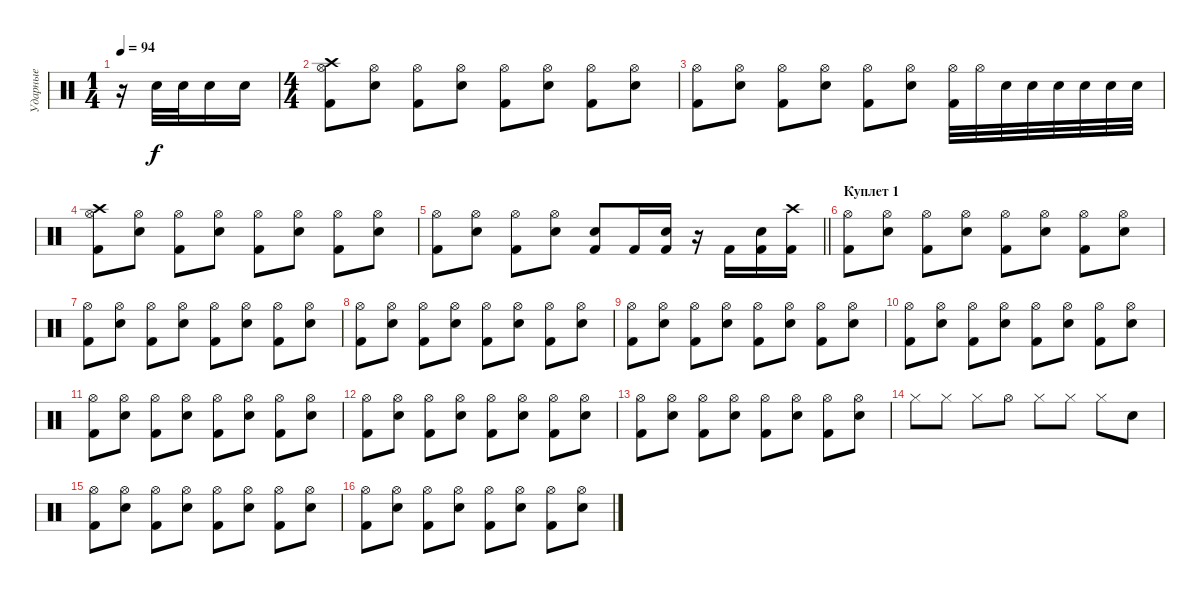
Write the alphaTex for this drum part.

\track ("Ударные" "Ударные") {instrument percussion}
\staff {score}
\articulation defaults
\ts (1 4)
\tempo 94
\clef neutral
\ks c
r.16{dy f} "Electric Snare (hit)".32 "Electric Snare (hit)".32 "Electric Snare (hit)".16 "Electric Snare (hit)".16 |
\ts (4 4)
("Crash high (hit)" "Hi-Hat (open)" "Kick (hit) 2").8 ("Hi-Hat (open)" "Electric Snare (hit)").8 ("Hi-Hat (open)" "Kick (hit) 2").8 ("Hi-Hat (open)" "Electric Snare (hit)").8 ("Hi-Hat (open)" "Kick (hit) 2").8 ("Hi-Hat (open)" "Electric Snare (hit)").8 ("Hi-Hat (open)" "Kick (hit) 2").8 ("Hi-Hat (open)" "Electric Snare (hit)").8 |
("Hi-Hat (open)" "Kick (hit) 2").8 ("Hi-Hat (open)" "Electric Snare (hit)").8 ("Hi-Hat (open)" "Kick (hit) 2").8 ("Hi-Hat (open)" "Electric Snare (hit)").8 ("Hi-Hat (open)" "Kick (hit) 2").8 ("Hi-Hat (open)" "Electric Snare (hit)").8 ("Hi-Hat (open)" "Kick (hit) 2").32 "Hi-Hat (open)".32 "Electric Snare (hit)".32 "Electric Snare (hit)".32 "Electric Snare (hit)".32 "Electric Snare (hit)".32 "Electric Snare (hit)".32 "Electric Snare (hit)".32 |
("Crash high (hit)" "Hi-Hat (open)" "Kick (hit) 2").8 ("Hi-Hat (open)" "Electric Snare (hit)").8 ("Hi-Hat (open)" "Kick (hit) 2").8 ("Hi-Hat (open)" "Electric Snare (hit)").8 ("Hi-Hat (open)" "Kick (hit) 2").8 ("Hi-Hat (open)" "Electric Snare (hit)").8 ("Hi-Hat (open)" "Kick (hit) 2").8 ("Hi-Hat (open)" "Electric Snare (hit)").8 |
\barLineRight lightlight
("Hi-Hat (open)" "Kick (hit) 2").8 ("Hi-Hat (open)" "Electric Snare (hit)").8 ("Hi-Hat (open)" "Kick (hit) 2").8 ("Hi-Hat (open)" "Electric Snare (hit)").8 ("Electric Snare (hit)" "Kick (hit) 2").8 "Kick (hit) 2".16 ("Electric Snare (hit)" "Kick (hit) 2").16 r.16 "Kick (hit) 2".16 ("Electric Snare (hit)" "Kick (hit) 2").16 ("Crash high (hit)" "Kick (hit) 2").16 |
\section ("" "Куплет 1")
("Hi-Hat (open)" "Kick (hit) 2").8 ("Hi-Hat (open)" "Electric Snare (hit)").8 ("Hi-Hat (open)" "Kick (hit) 2").8 ("Hi-Hat (open)" "Electric Snare (hit)").8 ("Hi-Hat (open)" "Kick (hit) 2").8 ("Hi-Hat (open)" "Electric Snare (hit)").8 ("Hi-Hat (open)" "Kick (hit) 2").8 ("Hi-Hat (open)" "Electric Snare (hit)").8 |
("Hi-Hat (open)" "Kick (hit) 2").8 ("Hi-Hat (open)" "Electric Snare (hit)").8 ("Hi-Hat (open)" "Kick (hit) 2").8 ("Hi-Hat (open)" "Electric Snare (hit)").8 ("Hi-Hat (open)" "Kick (hit) 2").8 ("Hi-Hat (open)" "Electric Snare (hit)").8 ("Hi-Hat (open)" "Kick (hit) 2").8 ("Hi-Hat (open)" "Electric Snare (hit)").8 |
("Hi-Hat (open)" "Kick (hit) 2").8 ("Hi-Hat (open)" "Electric Snare (hit)").8 ("Hi-Hat (open)" "Kick (hit) 2").8 ("Hi-Hat (open)" "Electric Snare (hit)").8 ("Hi-Hat (open)" "Kick (hit) 2").8 ("Hi-Hat (open)" "Electric Snare (hit)").8 ("Hi-Hat (open)" "Kick (hit) 2").8 ("Hi-Hat (open)" "Electric Snare (hit)").8 |
("Hi-Hat (open)" "Kick (hit) 2").8 ("Hi-Hat (open)" "Electric Snare (hit)").8 ("Hi-Hat (open)" "Kick (hit) 2").8 ("Hi-Hat (open)" "Electric Snare (hit)").8 ("Hi-Hat (open)" "Kick (hit) 2").8 ("Hi-Hat (open)" "Electric Snare (hit)").8 ("Hi-Hat (open)" "Kick (hit) 2").8 ("Hi-Hat (open)" "Electric Snare (hit)").8 |
("Hi-Hat (open)" "Kick (hit) 2").8 ("Hi-Hat (open)" "Electric Snare (hit)").8 ("Hi-Hat (open)" "Kick (hit) 2").8 ("Hi-Hat (open)" "Electric Snare (hit)").8 ("Hi-Hat (open)" "Kick (hit) 2").8 ("Hi-Hat (open)" "Electric Snare (hit)").8 ("Hi-Hat (open)" "Kick (hit) 2").8 ("Hi-Hat (open)" "Electric Snare (hit)").8 |
("Hi-Hat (open)" "Kick (hit) 2").8 ("Hi-Hat (open)" "Electric Snare (hit)").8 ("Hi-Hat (open)" "Kick (hit) 2").8 ("Hi-Hat (open)" "Electric Snare (hit)").8 ("Hi-Hat (open)" "Kick (hit) 2").8 ("Hi-Hat (open)" "Electric Snare (hit)").8 ("Hi-Hat (open)" "Kick (hit) 2").8 ("Hi-Hat (open)" "Electric Snare (hit)").8 |
("Hi-Hat (open)" "Kick (hit) 2").8 ("Hi-Hat (open)" "Electric Snare (hit)").8 ("Hi-Hat (open)" "Kick (hit) 2").8 ("Hi-Hat (open)" "Electric Snare (hit)").8 ("Hi-Hat (open)" "Kick (hit) 2").8 ("Hi-Hat (open)" "Electric Snare (hit)").8 ("Hi-Hat (open)" "Kick (hit) 2").8 ("Hi-Hat (open)" "Electric Snare (hit)").8 |
("Hi-Hat (open)" "Kick (hit) 2").8 ("Hi-Hat (open)" "Electric Snare (hit)").8 ("Hi-Hat (open)" "Kick (hit) 2").8 ("Hi-Hat (open)" "Electric Snare (hit)").8 ("Hi-Hat (open)" "Kick (hit) 2").8 ("Hi-Hat (open)" "Electric Snare (hit)").8 ("Hi-Hat (open)" "Kick (hit) 2").8 ("Hi-Hat (open)" "Electric Snare (hit)").8 |
"Hi-Hat (closed)".8 "Hi-Hat (closed)".8 "Hi-Hat (closed)".8 "Hi-Hat (open)".8 "Hi-Hat (closed)".8 "Hi-Hat (closed)".8 "Hi-Hat (closed)".8 "Electric Snare (hit)".8 |
("Hi-Hat (open)" "Kick (hit) 2").8 ("Hi-Hat (open)" "Electric Snare (hit)").8 ("Hi-Hat (open)" "Kick (hit) 2").8 ("Hi-Hat (open)" "Electric Snare (hit)").8 ("Hi-Hat (open)" "Kick (hit) 2").8 ("Hi-Hat (open)" "Electric Snare (hit)").8 ("Hi-Hat (open)" "Kick (hit) 2").8 ("Hi-Hat (open)" "Electric Snare (hit)").8 |
("Hi-Hat (open)" "Kick (hit) 2").8 ("Hi-Hat (open)" "Electric Snare (hit)").8 ("Hi-Hat (open)" "Kick (hit) 2").8 ("Hi-Hat (open)" "Electric Snare (hit)").8 ("Hi-Hat (open)" "Kick (hit) 2").8 ("Hi-Hat (open)" "Electric Snare (hit)").8 ("Hi-Hat (open)" "Kick (hit) 2").8 ("Hi-Hat (open)" "Electric Snare (hit)").8
